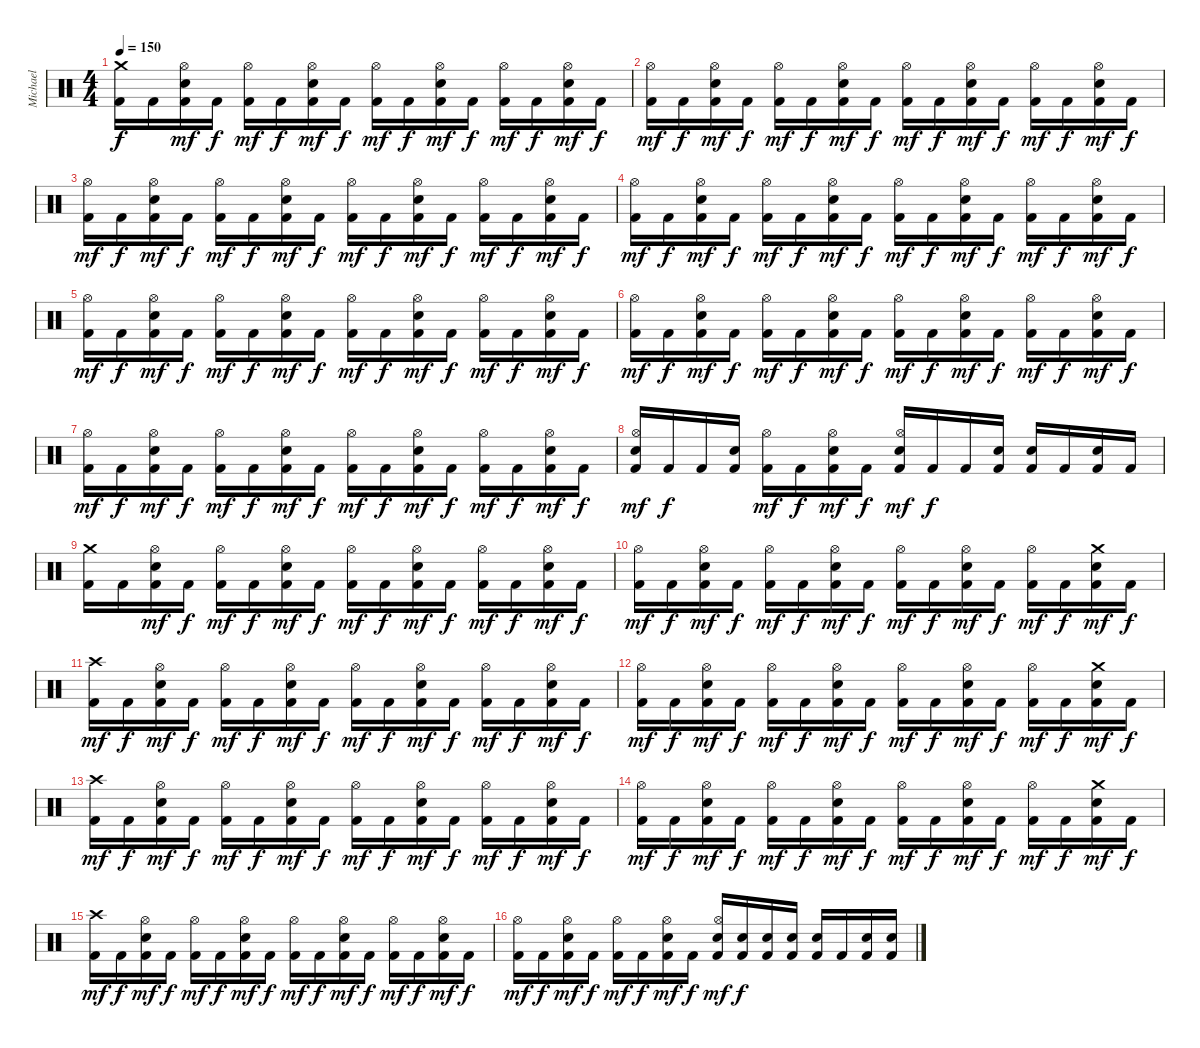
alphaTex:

\track ("Michael" "Michael") {instrument percussion}
\staff {score}
\articulation defaults
\ts (4 4)
\tempo 150
\clef neutral
\ks c
("Crash medium (hit)" "Kick (hit) 2").16{dy f} "Kick (hit) 2".16 ("Hi-Hat (open)" "Electric Snare (hit)" "Kick (hit) 2").16{dy mf} "Kick (hit) 2".16{dy f} ("Hi-Hat (open)" "Kick (hit) 2").16{dy mf} "Kick (hit) 2".16{dy f} ("Hi-Hat (open)" "Electric Snare (hit)" "Kick (hit) 2").16{dy mf} "Kick (hit) 2".16{dy f} ("Hi-Hat (open)" "Kick (hit) 2").16{dy mf} "Kick (hit) 2".16{dy f} ("Hi-Hat (open)" "Electric Snare (hit)" "Kick (hit) 2").16{dy mf} "Kick (hit) 2".16{dy f} ("Hi-Hat (open)" "Kick (hit) 2").16{dy mf} "Kick (hit) 2".16{dy f} ("Hi-Hat (open)" "Electric Snare (hit)" "Kick (hit) 2").16{dy mf} "Kick (hit) 2".16{dy f} |
("Hi-Hat (open)" "Kick (hit) 2").16{dy mf} "Kick (hit) 2".16{dy f} ("Hi-Hat (open)" "Electric Snare (hit)" "Kick (hit) 2").16{dy mf} "Kick (hit) 2".16{dy f} ("Hi-Hat (open)" "Kick (hit) 2").16{dy mf} "Kick (hit) 2".16{dy f} ("Hi-Hat (open)" "Electric Snare (hit)" "Kick (hit) 2").16{dy mf} "Kick (hit) 2".16{dy f} ("Hi-Hat (open)" "Kick (hit) 2").16{dy mf} "Kick (hit) 2".16{dy f} ("Hi-Hat (open)" "Electric Snare (hit)" "Kick (hit) 2").16{dy mf} "Kick (hit) 2".16{dy f} ("Hi-Hat (open)" "Kick (hit) 2").16{dy mf} "Kick (hit) 2".16{dy f} ("Hi-Hat (open)" "Electric Snare (hit)" "Kick (hit) 2").16{dy mf} "Kick (hit) 2".16{dy f} |
("Hi-Hat (open)" "Kick (hit) 2").16{dy mf} "Kick (hit) 2".16{dy f} ("Hi-Hat (open)" "Electric Snare (hit)" "Kick (hit) 2").16{dy mf} "Kick (hit) 2".16{dy f} ("Hi-Hat (open)" "Kick (hit) 2").16{dy mf} "Kick (hit) 2".16{dy f} ("Hi-Hat (open)" "Electric Snare (hit)" "Kick (hit) 2").16{dy mf} "Kick (hit) 2".16{dy f} ("Hi-Hat (open)" "Kick (hit) 2").16{dy mf} "Kick (hit) 2".16{dy f} ("Hi-Hat (open)" "Electric Snare (hit)" "Kick (hit) 2").16{dy mf} "Kick (hit) 2".16{dy f} ("Hi-Hat (open)" "Kick (hit) 2").16{dy mf} "Kick (hit) 2".16{dy f} ("Hi-Hat (open)" "Electric Snare (hit)" "Kick (hit) 2").16{dy mf} "Kick (hit) 2".16{dy f} |
("Hi-Hat (open)" "Kick (hit) 2").16{dy mf} "Kick (hit) 2".16{dy f} ("Hi-Hat (open)" "Electric Snare (hit)" "Kick (hit) 2").16{dy mf} "Kick (hit) 2".16{dy f} ("Hi-Hat (open)" "Kick (hit) 2").16{dy mf} "Kick (hit) 2".16{dy f} ("Hi-Hat (open)" "Electric Snare (hit)" "Kick (hit) 2").16{dy mf} "Kick (hit) 2".16{dy f} ("Hi-Hat (open)" "Kick (hit) 2").16{dy mf} "Kick (hit) 2".16{dy f} ("Hi-Hat (open)" "Electric Snare (hit)" "Kick (hit) 2").16{dy mf} "Kick (hit) 2".16{dy f} ("Hi-Hat (open)" "Kick (hit) 2").16{dy mf} "Kick (hit) 2".16{dy f} ("Hi-Hat (open)" "Electric Snare (hit)" "Kick (hit) 2").16{dy mf} "Kick (hit) 2".16{dy f} |
("Hi-Hat (open)" "Kick (hit) 2").16{dy mf} "Kick (hit) 2".16{dy f} ("Hi-Hat (open)" "Electric Snare (hit)" "Kick (hit) 2").16{dy mf} "Kick (hit) 2".16{dy f} ("Hi-Hat (open)" "Kick (hit) 2").16{dy mf} "Kick (hit) 2".16{dy f} ("Hi-Hat (open)" "Electric Snare (hit)" "Kick (hit) 2").16{dy mf} "Kick (hit) 2".16{dy f} ("Hi-Hat (open)" "Kick (hit) 2").16{dy mf} "Kick (hit) 2".16{dy f} ("Hi-Hat (open)" "Electric Snare (hit)" "Kick (hit) 2").16{dy mf} "Kick (hit) 2".16{dy f} ("Hi-Hat (open)" "Kick (hit) 2").16{dy mf} "Kick (hit) 2".16{dy f} ("Hi-Hat (open)" "Electric Snare (hit)" "Kick (hit) 2").16{dy mf} "Kick (hit) 2".16{dy f} |
("Hi-Hat (open)" "Kick (hit) 2").16{dy mf} "Kick (hit) 2".16{dy f} ("Hi-Hat (open)" "Electric Snare (hit)" "Kick (hit) 2").16{dy mf} "Kick (hit) 2".16{dy f} ("Hi-Hat (open)" "Kick (hit) 2").16{dy mf} "Kick (hit) 2".16{dy f} ("Hi-Hat (open)" "Electric Snare (hit)" "Kick (hit) 2").16{dy mf} "Kick (hit) 2".16{dy f} ("Hi-Hat (open)" "Kick (hit) 2").16{dy mf} "Kick (hit) 2".16{dy f} ("Hi-Hat (open)" "Electric Snare (hit)" "Kick (hit) 2").16{dy mf} "Kick (hit) 2".16{dy f} ("Hi-Hat (open)" "Kick (hit) 2").16{dy mf} "Kick (hit) 2".16{dy f} ("Hi-Hat (open)" "Electric Snare (hit)" "Kick (hit) 2").16{dy mf} "Kick (hit) 2".16{dy f} |
("Hi-Hat (open)" "Kick (hit) 2").16{dy mf} "Kick (hit) 2".16{dy f} ("Hi-Hat (open)" "Electric Snare (hit)" "Kick (hit) 2").16{dy mf} "Kick (hit) 2".16{dy f} ("Hi-Hat (open)" "Kick (hit) 2").16{dy mf} "Kick (hit) 2".16{dy f} ("Hi-Hat (open)" "Electric Snare (hit)" "Kick (hit) 2").16{dy mf} "Kick (hit) 2".16{dy f} ("Hi-Hat (open)" "Kick (hit) 2").16{dy mf} "Kick (hit) 2".16{dy f} ("Hi-Hat (open)" "Electric Snare (hit)" "Kick (hit) 2").16{dy mf} "Kick (hit) 2".16{dy f} ("Hi-Hat (open)" "Kick (hit) 2").16{dy mf} "Kick (hit) 2".16{dy f} ("Hi-Hat (open)" "Electric Snare (hit)" "Kick (hit) 2").16{dy mf} "Kick (hit) 2".16{dy f} |
("Hi-Hat (open)" "Electric Snare (hit)" "Kick (hit) 2").16{dy mf} "Kick (hit) 2".16{dy f} "Kick (hit) 2".16 ("Electric Snare (hit)" "Kick (hit) 2").16 ("Hi-Hat (open)" "Kick (hit) 2").16{dy mf} "Kick (hit) 2".16{dy f} ("Hi-Hat (open)" "Electric Snare (hit)" "Kick (hit) 2").16{dy mf} "Kick (hit) 2".16{dy f} ("Hi-Hat (open)" "Electric Snare (hit)" "Kick (hit) 2").16{dy mf} "Kick (hit) 2".16{dy f} "Kick (hit) 2".16 ("Electric Snare (hit)" "Kick (hit) 2").16 ("Electric Snare (hit)" "Kick (hit) 2").16 "Kick (hit) 2".16 ("Electric Snare (hit)" "Kick (hit) 2").16 "Kick (hit) 2".16 |
("Crash medium (hit)" "Kick (hit) 2").16 "Kick (hit) 2".16 ("Hi-Hat (open)" "Electric Snare (hit)" "Kick (hit) 2").16{dy mf} "Kick (hit) 2".16{dy f} ("Hi-Hat (open)" "Kick (hit) 2").16{dy mf} "Kick (hit) 2".16{dy f} ("Hi-Hat (open)" "Electric Snare (hit)" "Kick (hit) 2").16{dy mf} "Kick (hit) 2".16{dy f} ("Hi-Hat (open)" "Kick (hit) 2").16{dy mf} "Kick (hit) 2".16{dy f} ("Hi-Hat (open)" "Electric Snare (hit)" "Kick (hit) 2").16{dy mf} "Kick (hit) 2".16{dy f} ("Hi-Hat (open)" "Kick (hit) 2").16{dy mf} "Kick (hit) 2".16{dy f} ("Hi-Hat (open)" "Electric Snare (hit)" "Kick (hit) 2").16{dy mf} "Kick (hit) 2".16{dy f} |
("Hi-Hat (open)" "Kick (hit) 2").16{dy mf} "Kick (hit) 2".16{dy f} ("Hi-Hat (open)" "Electric Snare (hit)" "Kick (hit) 2").16{dy mf} "Kick (hit) 2".16{dy f} ("Hi-Hat (open)" "Kick (hit) 2").16{dy mf} "Kick (hit) 2".16{dy f} ("Hi-Hat (open)" "Electric Snare (hit)" "Kick (hit) 2").16{dy mf} "Kick (hit) 2".16{dy f} ("Hi-Hat (open)" "Kick (hit) 2").16{dy mf} "Kick (hit) 2".16{dy f} ("Hi-Hat (open)" "Electric Snare (hit)" "Kick (hit) 2").16{dy mf} "Kick (hit) 2".16{dy f} ("Hi-Hat (open)" "Kick (hit) 2").16{dy mf} "Kick (hit) 2".16{dy f} ("Crash medium (hit)" "Electric Snare (hit)" "Kick (hit) 2").16{dy mf} "Kick (hit) 2".16{dy f} |
("Crash high (hit)" "Kick (hit) 2").16{dy mf} "Kick (hit) 2".16{dy f} ("Hi-Hat (open)" "Electric Snare (hit)" "Kick (hit) 2").16{dy mf} "Kick (hit) 2".16{dy f} ("Hi-Hat (open)" "Kick (hit) 2").16{dy mf} "Kick (hit) 2".16{dy f} ("Hi-Hat (open)" "Electric Snare (hit)" "Kick (hit) 2").16{dy mf} "Kick (hit) 2".16{dy f} ("Hi-Hat (open)" "Kick (hit) 2").16{dy mf} "Kick (hit) 2".16{dy f} ("Hi-Hat (open)" "Electric Snare (hit)" "Kick (hit) 2").16{dy mf} "Kick (hit) 2".16{dy f} ("Hi-Hat (open)" "Kick (hit) 2").16{dy mf} "Kick (hit) 2".16{dy f} ("Hi-Hat (open)" "Electric Snare (hit)" "Kick (hit) 2").16{dy mf} "Kick (hit) 2".16{dy f} |
("Hi-Hat (open)" "Kick (hit) 2").16{dy mf} "Kick (hit) 2".16{dy f} ("Hi-Hat (open)" "Electric Snare (hit)" "Kick (hit) 2").16{dy mf} "Kick (hit) 2".16{dy f} ("Hi-Hat (open)" "Kick (hit) 2").16{dy mf} "Kick (hit) 2".16{dy f} ("Hi-Hat (open)" "Electric Snare (hit)" "Kick (hit) 2").16{dy mf} "Kick (hit) 2".16{dy f} ("Hi-Hat (open)" "Kick (hit) 2").16{dy mf} "Kick (hit) 2".16{dy f} ("Hi-Hat (open)" "Electric Snare (hit)" "Kick (hit) 2").16{dy mf} "Kick (hit) 2".16{dy f} ("Hi-Hat (open)" "Kick (hit) 2").16{dy mf} "Kick (hit) 2".16{dy f} ("Crash medium (hit)" "Electric Snare (hit)" "Kick (hit) 2").16{dy mf} "Kick (hit) 2".16{dy f} |
("Crash high (hit)" "Kick (hit) 2").16{dy mf} "Kick (hit) 2".16{dy f} ("Hi-Hat (open)" "Electric Snare (hit)" "Kick (hit) 2").16{dy mf} "Kick (hit) 2".16{dy f} ("Hi-Hat (open)" "Kick (hit) 2").16{dy mf} "Kick (hit) 2".16{dy f} ("Hi-Hat (open)" "Electric Snare (hit)" "Kick (hit) 2").16{dy mf} "Kick (hit) 2".16{dy f} ("Hi-Hat (open)" "Kick (hit) 2").16{dy mf} "Kick (hit) 2".16{dy f} ("Hi-Hat (open)" "Electric Snare (hit)" "Kick (hit) 2").16{dy mf} "Kick (hit) 2".16{dy f} ("Hi-Hat (open)" "Kick (hit) 2").16{dy mf} "Kick (hit) 2".16{dy f} ("Hi-Hat (open)" "Electric Snare (hit)" "Kick (hit) 2").16{dy mf} "Kick (hit) 2".16{dy f} |
("Hi-Hat (open)" "Kick (hit) 2").16{dy mf} "Kick (hit) 2".16{dy f} ("Hi-Hat (open)" "Electric Snare (hit)" "Kick (hit) 2").16{dy mf} "Kick (hit) 2".16{dy f} ("Hi-Hat (open)" "Kick (hit) 2").16{dy mf} "Kick (hit) 2".16{dy f} ("Hi-Hat (open)" "Electric Snare (hit)" "Kick (hit) 2").16{dy mf} "Kick (hit) 2".16{dy f} ("Hi-Hat (open)" "Kick (hit) 2").16{dy mf} "Kick (hit) 2".16{dy f} ("Hi-Hat (open)" "Electric Snare (hit)" "Kick (hit) 2").16{dy mf} "Kick (hit) 2".16{dy f} ("Hi-Hat (open)" "Kick (hit) 2").16{dy mf} "Kick (hit) 2".16{dy f} ("Crash medium (hit)" "Electric Snare (hit)" "Kick (hit) 2").16{dy mf} "Kick (hit) 2".16{dy f} |
("Crash high (hit)" "Kick (hit) 2").16{dy mf} "Kick (hit) 2".16{dy f} ("Hi-Hat (open)" "Electric Snare (hit)" "Kick (hit) 2").16{dy mf} "Kick (hit) 2".16{dy f} ("Hi-Hat (open)" "Kick (hit) 2").16{dy mf} "Kick (hit) 2".16{dy f} ("Hi-Hat (open)" "Electric Snare (hit)" "Kick (hit) 2").16{dy mf} "Kick (hit) 2".16{dy f} ("Hi-Hat (open)" "Kick (hit) 2").16{dy mf} "Kick (hit) 2".16{dy f} ("Hi-Hat (open)" "Electric Snare (hit)" "Kick (hit) 2").16{dy mf} "Kick (hit) 2".16{dy f} ("Hi-Hat (open)" "Kick (hit) 2").16{dy mf} "Kick (hit) 2".16{dy f} ("Hi-Hat (open)" "Electric Snare (hit)" "Kick (hit) 2").16{dy mf} "Kick (hit) 2".16{dy f} |
("Hi-Hat (open)" "Kick (hit) 2").16{dy mf} "Kick (hit) 2".16{dy f} ("Hi-Hat (open)" "Electric Snare (hit)" "Kick (hit) 2").16{dy mf} "Kick (hit) 2".16{dy f} ("Hi-Hat (open)" "Kick (hit) 2").16{dy mf} "Kick (hit) 2".16{dy f} ("Hi-Hat (open)" "Electric Snare (hit)" "Kick (hit) 2").16{dy mf} "Kick (hit) 2".16{dy f} ("Hi-Hat (open)" "Electric Snare (hit)" "Kick (hit) 2").16{dy mf} ("Electric Snare (hit)" "Kick (hit) 2").16{dy f} ("Electric Snare (hit)" "Kick (hit) 2").16 ("Electric Snare (hit)" "Kick (hit) 2").16 ("Electric Snare (hit)" "Kick (hit) 2").16 "Kick (hit) 2".16 ("Electric Snare (hit)" "Kick (hit) 2").16 ("Electric Snare (hit)" "Kick (hit) 2").16
